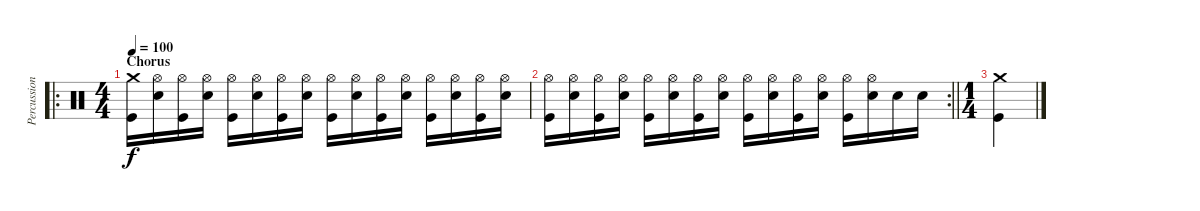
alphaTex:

\track ("Percussion" "Percussion") {instrument percussion}
\staff {score}
\articulation defaults
\ro
\ts (4 4)
\section ("" "Chorus")
\tempo 100
\clef neutral
\ks c
("Kick (hit)" "Crash medium (hit)").16{dy f} ("Snare (hit) 2" "Hi-Hat (open)").16 ("Kick (hit)" "Hi-Hat (open)").16 ("Snare (hit) 2" "Hi-Hat (open)").16 ("Kick (hit)" "Hi-Hat (open)").16 ("Snare (hit) 2" "Hi-Hat (open)").16 ("Kick (hit)" "Hi-Hat (open)").16 ("Snare (hit) 2" "Hi-Hat (open)").16 ("Kick (hit)" "Hi-Hat (open)").16 ("Snare (hit) 2" "Hi-Hat (open)").16 ("Kick (hit)" "Hi-Hat (open)").16 ("Snare (hit) 2" "Hi-Hat (open)").16 ("Kick (hit)" "Hi-Hat (open)").16 ("Snare (hit) 2" "Hi-Hat (open)").16 ("Kick (hit)" "Hi-Hat (open)").16 ("Snare (hit) 2" "Hi-Hat (open)").16 |
\rc 2
\barLineRight lightlight
("Kick (hit)" "Hi-Hat (open)").16 ("Snare (hit) 2" "Hi-Hat (open)").16 ("Kick (hit)" "Hi-Hat (open)").16 ("Snare (hit) 2" "Hi-Hat (open)").16 ("Kick (hit)" "Hi-Hat (open)").16 ("Snare (hit) 2" "Hi-Hat (open)").16 ("Kick (hit)" "Hi-Hat (open)").16 ("Snare (hit) 2" "Hi-Hat (open)").16 ("Kick (hit)" "Hi-Hat (open)").16 ("Snare (hit) 2" "Hi-Hat (open)").16 ("Kick (hit)" "Hi-Hat (open)").16 ("Snare (hit) 2" "Hi-Hat (open)").16 ("Kick (hit)" "Hi-Hat (open)").16 ("Snare (hit) 2" "Hi-Hat (open)").16 "Snare (hit) 2".16 "Snare (hit) 2".16 |
\ts (1 4)
("Kick (hit)" "Crash medium (hit)").4
